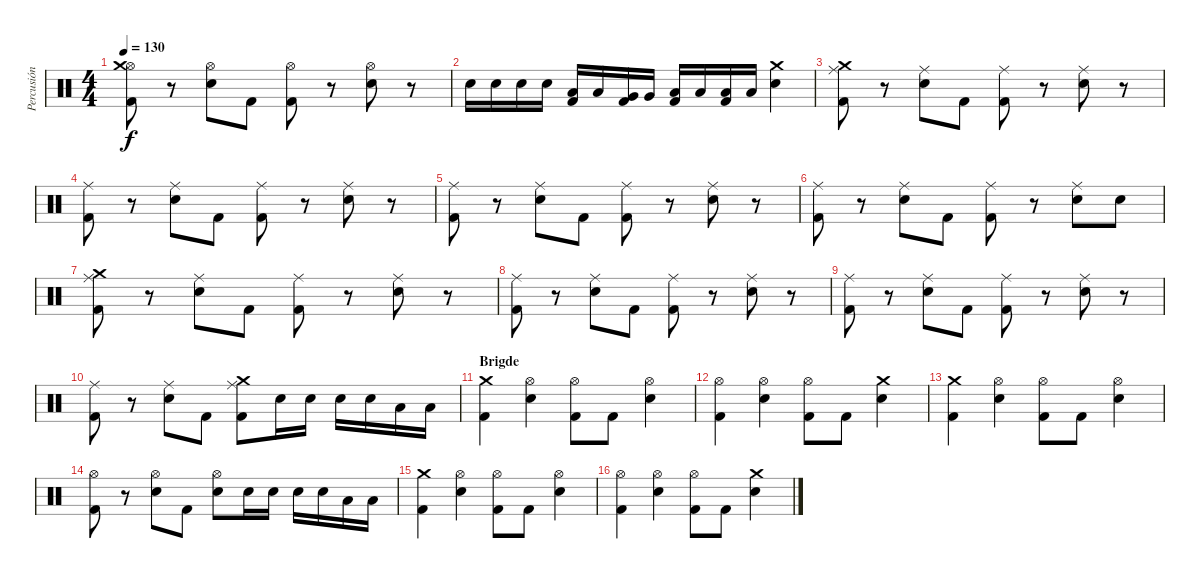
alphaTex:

\track ("Percusión" "Percusión") {instrument percussion}
\staff {score}
\articulation defaults
\ts (4 4)
\tempo 130
\clef neutral
\ks c
("Hi-Hat (open)" "Kick (hit) 2" "Crash medium (hit)").8{dy f} r.8 ("Hi-Hat (open)" "Electric Snare (hit)").8 "Kick (hit) 2".8 ("Hi-Hat (open)" "Kick (hit) 2").8 r.8 ("Hi-Hat (open)" "Electric Snare (hit)").8 r.8 |
"Electric Snare (hit)".16 "Electric Snare (hit)".16 "Electric Snare (hit)".16 "Electric Snare (hit)".16 ("Low Tom (hit)" "Kick (hit) 2").16 "Low Tom (hit)".16 ("Very Low Tom (hit)" "Kick (hit) 2").16 "Very Low Tom (hit)".16 ("Low Floor Tom (hit)" "Kick (hit) 2").16 "Low Floor Tom (hit)".16 ("Low Floor Tom (hit)" "Kick (hit) 2").16 "Low Floor Tom (hit)".16 ("Crash medium (hit)" "Electric Snare (hit)").4 |
("Ride (middle)" "Kick (hit) 2" "Crash medium (hit)").8 r.8 ("Ride (middle)" "Electric Snare (hit)").8 "Kick (hit) 2".8 ("Ride (middle)" "Kick (hit) 2").8 r.8 ("Ride (middle)" "Electric Snare (hit)").8 r.8 |
("Ride (middle)" "Kick (hit) 2").8 r.8 ("Ride (middle)" "Electric Snare (hit)").8 "Kick (hit) 2".8 ("Ride (middle)" "Kick (hit) 2").8 r.8 ("Ride (middle)" "Electric Snare (hit)").8 r.8 |
("Ride (middle)" "Kick (hit) 2").8 r.8 ("Ride (middle)" "Electric Snare (hit)").8 "Kick (hit) 2".8 ("Ride (middle)" "Kick (hit) 2").8 r.8 ("Ride (middle)" "Electric Snare (hit)").8 r.8 |
("Ride (middle)" "Kick (hit) 2").8 r.8 ("Ride (middle)" "Electric Snare (hit)").8 "Kick (hit) 2".8 ("Ride (middle)" "Kick (hit) 2").8 r.8 ("Ride (middle)" "Electric Snare (hit)").8 "Electric Snare (hit)".8 |
("Crash medium (hit)" "Ride (middle)" "Kick (hit) 2").8 r.8 ("Ride (middle)" "Electric Snare (hit)").8 "Kick (hit) 2".8 ("Ride (middle)" "Kick (hit) 2").8 r.8 ("Ride (middle)" "Electric Snare (hit)").8 r.8 |
("Ride (middle)" "Kick (hit) 2").8 r.8 ("Ride (middle)" "Electric Snare (hit)").8 "Kick (hit) 2".8 ("Ride (middle)" "Kick (hit) 2").8 r.8 ("Ride (middle)" "Electric Snare (hit)").8 r.8 |
("Ride (middle)" "Kick (hit) 2").8 r.8 ("Ride (middle)" "Electric Snare (hit)").8 "Kick (hit) 2".8 ("Ride (middle)" "Kick (hit) 2").8 r.8 ("Ride (middle)" "Electric Snare (hit)").8 r.8 |
("Ride (middle)" "Kick (hit) 2").8 r.8 ("Ride (middle)" "Electric Snare (hit)").8 "Kick (hit) 2".8 ("Crash medium (hit)" "Ride (middle)" "Kick (hit) 2").8 "Electric Snare (hit)".16 "Electric Snare (hit)".16 "Electric Snare (hit)".16 "Electric Snare (hit)".16 "Low Tom (hit)".16 "Low Floor Tom (hit)".16 |
\section ("" "Brigde")
("Crash medium (hit)" "Kick (hit) 2").4 ("Hi-Hat (open)" "Electric Snare (hit)").4 ("Hi-Hat (open)" "Kick (hit) 2").8 "Kick (hit) 2".8 ("Hi-Hat (open)" "Electric Snare (hit)").4 |
("Hi-Hat (open)" "Kick (hit) 2").4 ("Hi-Hat (open)" "Electric Snare (hit)").4 ("Hi-Hat (open)" "Kick (hit) 2").8 "Kick (hit) 2".8 ("Crash medium (hit)" "Electric Snare (hit)").4 |
("Crash medium (hit)" "Kick (hit) 2").4 ("Hi-Hat (open)" "Electric Snare (hit)").4 ("Hi-Hat (open)" "Kick (hit) 2").8 "Kick (hit) 2".8 ("Hi-Hat (open)" "Electric Snare (hit)").4 |
("Hi-Hat (open)" "Kick (hit) 2").8 r.8 ("Hi-Hat (open)" "Electric Snare (hit)").8 "Kick (hit) 2".8 ("Hi-Hat (open)" "Electric Snare (hit)").8 "Electric Snare (hit)".16 "Electric Snare (hit)".16 "Electric Snare (hit)".16 "Electric Snare (hit)".16 "Low Tom (hit)".16 "Low Floor Tom (hit)".16 |
("Crash medium (hit)" "Kick (hit) 2").4 ("Hi-Hat (open)" "Electric Snare (hit)").4 ("Hi-Hat (open)" "Kick (hit) 2").8 "Kick (hit) 2".8 ("Hi-Hat (open)" "Electric Snare (hit)").4 |
("Hi-Hat (open)" "Kick (hit) 2").4 ("Hi-Hat (open)" "Electric Snare (hit)").4 ("Hi-Hat (open)" "Kick (hit) 2").8 "Kick (hit) 2".8 ("Crash medium (hit)" "Electric Snare (hit)").4
